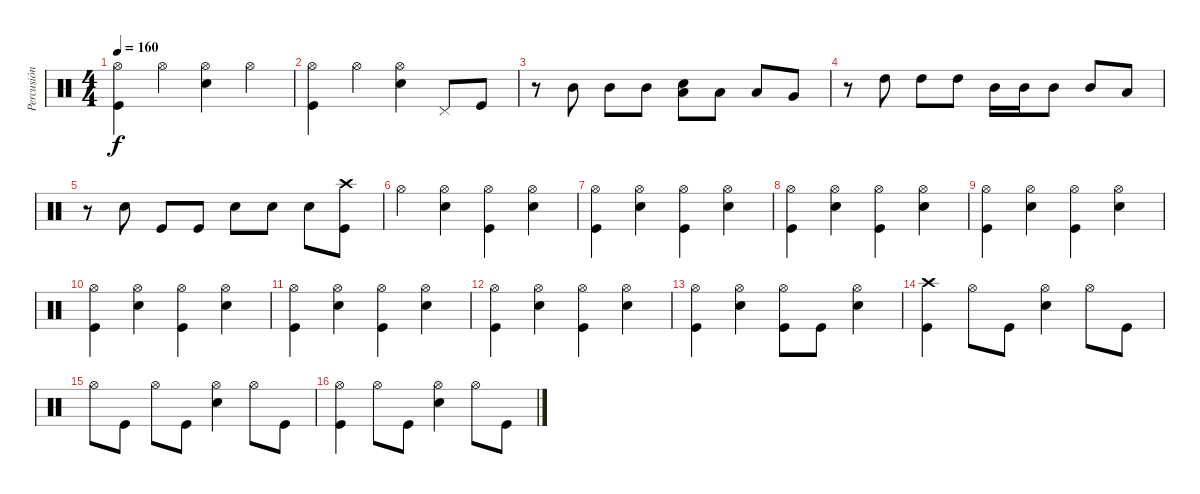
\track ("Percusión" "Percusión") {instrument percussion}
\staff {score}
\articulation defaults
\ts (4 4)
\tempo 160
\clef neutral
\ks c
("Kick (hit)" "Hi-Hat (open)").4{dy f} "Hi-Hat (open)".4 ("Snare (hit) 2" "Hi-Hat (open)").4 "Hi-Hat (open)".4 |
("Kick (hit)" "Hi-Hat (open)").4 "Hi-Hat (open)".4 ("Snare (hit) 2" "Hi-Hat (open)").4 "Pedal Hi-Hat (hit)".8 "Kick (hit)".8 |
r.8 "Mid Tom (hit)".8 "Mid Tom (hit)".8 "Mid Tom (hit)".8 ("Low Tom (hit)" "Snare (hit) 2").8 "Low Tom (hit)".8 "Low Tom (hit)".8 "Very Low Tom (hit)".8 |
r.8 "High Tom (hit)".8 "High Tom (hit)".8 "High Tom (hit)".8 "Mid Tom (hit)".16 "Mid Tom (hit)".16 "Mid Tom (hit)".8 "Mid Tom (hit)".8 "Low Tom (hit)".8 |
r.8 "Snare (hit) 2".8 "Kick (hit)".8 "Kick (hit)".8 "Snare (hit) 2".8 "Snare (hit) 2".8 "Snare (hit) 2".8 ("Kick (hit)" "Crash high (hit)").8 |
"Hi-Hat (open)".4{volume 10} ("Snare (hit) 2" "Hi-Hat (open)").4 ("Kick (hit)" "Hi-Hat (open)").4 ("Snare (hit) 2" "Hi-Hat (open)").4 |
("Kick (hit)" "Hi-Hat (open)").4 ("Snare (hit) 2" "Hi-Hat (open)").4 ("Kick (hit)" "Hi-Hat (open)").4 ("Snare (hit) 2" "Hi-Hat (open)").4 |
("Kick (hit)" "Hi-Hat (open)").4 ("Snare (hit) 2" "Hi-Hat (open)").4 ("Kick (hit)" "Hi-Hat (open)").4 ("Snare (hit) 2" "Hi-Hat (open)").4 |
("Kick (hit)" "Hi-Hat (open)").4 ("Snare (hit) 2" "Hi-Hat (open)").4 ("Kick (hit)" "Hi-Hat (open)").4 ("Snare (hit) 2" "Hi-Hat (open)").4 |
("Kick (hit)" "Hi-Hat (open)").4{volume 6} ("Snare (hit) 2" "Hi-Hat (open)").4 ("Kick (hit)" "Hi-Hat (open)").4 ("Snare (hit) 2" "Hi-Hat (open)").4 |
("Kick (hit)" "Hi-Hat (open)").4 ("Snare (hit) 2" "Hi-Hat (open)").4 ("Kick (hit)" "Hi-Hat (open)").4 ("Snare (hit) 2" "Hi-Hat (open)").4 |
("Kick (hit)" "Hi-Hat (open)").4 ("Snare (hit) 2" "Hi-Hat (open)").4 ("Kick (hit)" "Hi-Hat (open)").4 ("Snare (hit) 2" "Hi-Hat (open)").4 |
("Kick (hit)" "Hi-Hat (open)").4 ("Snare (hit) 2" "Hi-Hat (open)").4 ("Kick (hit)" "Hi-Hat (open)").8 "Kick (hit)".8 ("Snare (hit) 2" "Hi-Hat (open)").4 |
("Kick (hit)" "Crash high (hit)").4{volume 2} "Hi-Hat (open)".8 "Kick (hit)".8 ("Snare (hit) 2" "Hi-Hat (open)").4 "Hi-Hat (open)".8 "Kick (hit)".8 |
"Hi-Hat (open)".8 "Kick (hit)".8 "Hi-Hat (open)".8 "Kick (hit)".8 ("Snare (hit) 2" "Hi-Hat (open)").4 "Hi-Hat (open)".8 "Kick (hit)".8 |
("Kick (hit)" "Hi-Hat (open)").4 "Hi-Hat (open)".8 "Kick (hit)".8 ("Snare (hit) 2" "Hi-Hat (open)").4 "Hi-Hat (open)".8 "Kick (hit)".8
